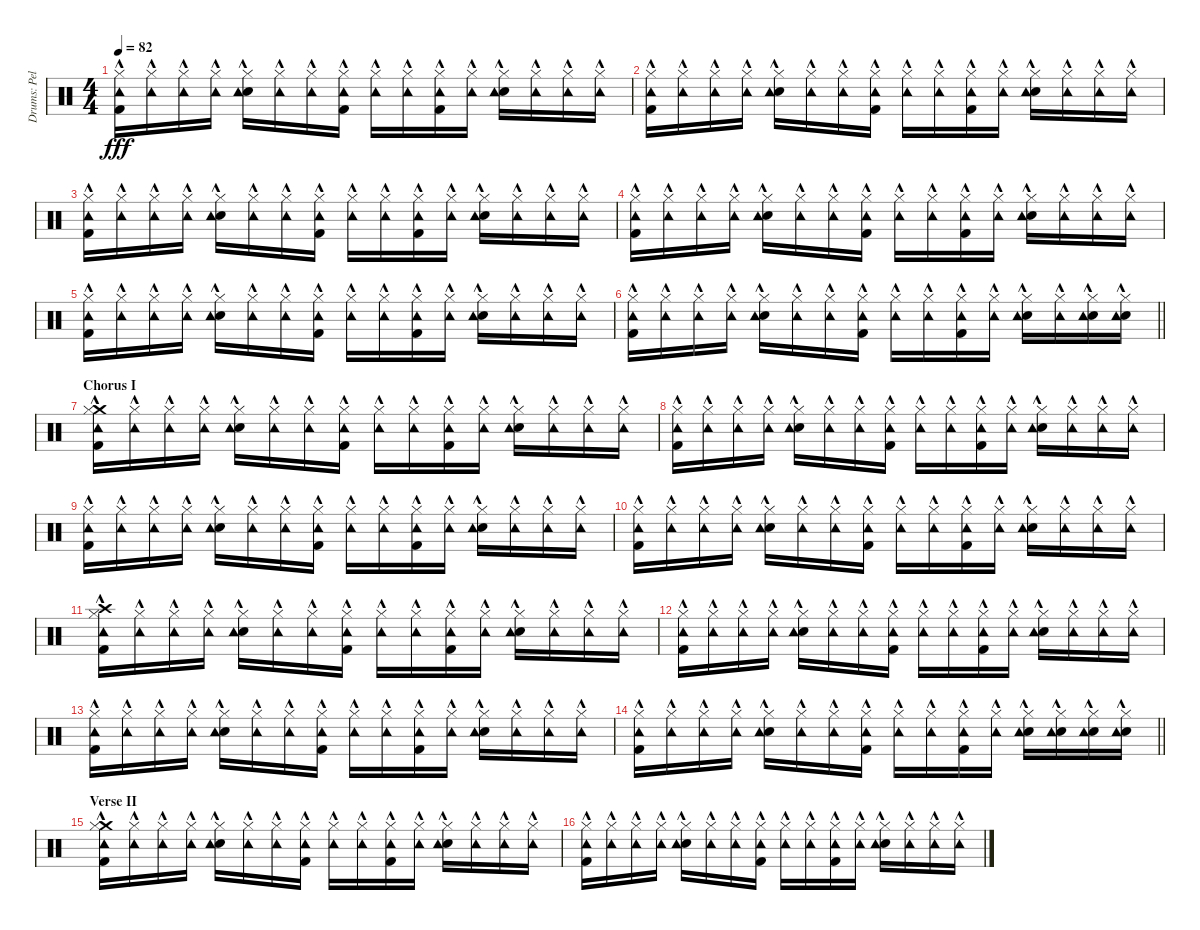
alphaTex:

\track ("Drums: Pelle" "Drums: Pel") {instrument percussion}
\staff {score}
\articulation defaults
\ts (4 4)
\tempo 82
\clef neutral
\ks c
("Hi-Hat (closed)"{hac} "Tambourine (hit)"{hac} "Kick (hit) 2"{hac}).16{dy fff} ("Hi-Hat (closed)"{hac} "Tambourine (hit)"{hac}).16 ("Hi-Hat (closed)"{hac} "Tambourine (hit)"{hac}).16 ("Hi-Hat (closed)"{hac} "Tambourine (hit)"{hac}).16 ("Hi-Hat (closed)"{hac} "Snare (hit) 2"{hac} "Tambourine (hit)"{hac}).16 ("Hi-Hat (closed)"{hac} "Tambourine (hit)"{hac}).16 ("Hi-Hat (closed)"{hac} "Tambourine (hit)"{hac}).16 ("Hi-Hat (closed)"{hac} "Tambourine (hit)"{hac} "Kick (hit) 2"{hac}).16 ("Hi-Hat (closed)"{hac} "Tambourine (hit)"{hac}).16 ("Hi-Hat (closed)"{hac} "Tambourine (hit)"{hac}).16 ("Hi-Hat (closed)"{hac} "Tambourine (hit)"{hac} "Kick (hit) 2"{hac}).16 ("Hi-Hat (closed)"{hac} "Tambourine (hit)"{hac}).16 ("Hi-Hat (closed)"{hac} "Snare (hit) 2"{hac} "Tambourine (hit)"{hac}).16 ("Hi-Hat (closed)"{hac} "Tambourine (hit)"{hac}).16 ("Hi-Hat (closed)"{hac} "Tambourine (hit)"{hac}).16 ("Hi-Hat (closed)"{hac} "Tambourine (hit)"{hac}).16 |
("Hi-Hat (closed)"{hac} "Tambourine (hit)"{hac} "Kick (hit) 2"{hac}).16 ("Hi-Hat (closed)"{hac} "Tambourine (hit)"{hac}).16 ("Hi-Hat (closed)"{hac} "Tambourine (hit)"{hac}).16 ("Hi-Hat (closed)"{hac} "Tambourine (hit)"{hac}).16 ("Hi-Hat (closed)"{hac} "Snare (hit) 2"{hac} "Tambourine (hit)"{hac}).16 ("Hi-Hat (closed)"{hac} "Tambourine (hit)"{hac}).16 ("Hi-Hat (closed)"{hac} "Tambourine (hit)"{hac}).16 ("Hi-Hat (closed)"{hac} "Tambourine (hit)"{hac} "Kick (hit) 2"{hac}).16 ("Hi-Hat (closed)"{hac} "Tambourine (hit)"{hac}).16 ("Hi-Hat (closed)"{hac} "Tambourine (hit)"{hac}).16 ("Hi-Hat (closed)"{hac} "Tambourine (hit)"{hac} "Kick (hit) 2"{hac}).16 ("Hi-Hat (closed)"{hac} "Tambourine (hit)"{hac}).16 ("Hi-Hat (closed)"{hac} "Snare (hit) 2"{hac} "Tambourine (hit)"{hac}).16 ("Hi-Hat (closed)"{hac} "Tambourine (hit)"{hac}).16 ("Hi-Hat (closed)"{hac} "Tambourine (hit)"{hac}).16 ("Hi-Hat (closed)"{hac} "Tambourine (hit)"{hac}).16 |
("Hi-Hat (closed)"{hac} "Tambourine (hit)"{hac} "Kick (hit) 2"{hac}).16 ("Hi-Hat (closed)"{hac} "Tambourine (hit)"{hac}).16 ("Hi-Hat (closed)"{hac} "Tambourine (hit)"{hac}).16 ("Hi-Hat (closed)"{hac} "Tambourine (hit)"{hac}).16 ("Hi-Hat (closed)"{hac} "Snare (hit) 2"{hac} "Tambourine (hit)"{hac}).16 ("Hi-Hat (closed)"{hac} "Tambourine (hit)"{hac}).16 ("Hi-Hat (closed)"{hac} "Tambourine (hit)"{hac}).16 ("Hi-Hat (closed)"{hac} "Tambourine (hit)"{hac} "Kick (hit) 2"{hac}).16 ("Hi-Hat (closed)"{hac} "Tambourine (hit)"{hac}).16 ("Hi-Hat (closed)"{hac} "Tambourine (hit)"{hac}).16 ("Hi-Hat (closed)"{hac} "Tambourine (hit)"{hac} "Kick (hit) 2"{hac}).16 ("Hi-Hat (closed)"{hac} "Tambourine (hit)"{hac}).16 ("Hi-Hat (closed)"{hac} "Snare (hit) 2"{hac} "Tambourine (hit)"{hac}).16 ("Hi-Hat (closed)"{hac} "Tambourine (hit)"{hac}).16 ("Hi-Hat (closed)"{hac} "Tambourine (hit)"{hac}).16 ("Hi-Hat (closed)"{hac} "Tambourine (hit)"{hac}).16 |
("Hi-Hat (closed)"{hac} "Tambourine (hit)"{hac} "Kick (hit) 2"{hac}).16 ("Hi-Hat (closed)"{hac} "Tambourine (hit)"{hac}).16 ("Hi-Hat (closed)"{hac} "Tambourine (hit)"{hac}).16 ("Hi-Hat (closed)"{hac} "Tambourine (hit)"{hac}).16 ("Hi-Hat (closed)"{hac} "Snare (hit) 2"{hac} "Tambourine (hit)"{hac}).16 ("Hi-Hat (closed)"{hac} "Tambourine (hit)"{hac}).16 ("Hi-Hat (closed)"{hac} "Tambourine (hit)"{hac}).16 ("Hi-Hat (closed)"{hac} "Tambourine (hit)"{hac} "Kick (hit) 2"{hac}).16 ("Hi-Hat (closed)"{hac} "Tambourine (hit)"{hac}).16 ("Hi-Hat (closed)"{hac} "Tambourine (hit)"{hac}).16 ("Hi-Hat (closed)"{hac} "Tambourine (hit)"{hac} "Kick (hit) 2"{hac}).16 ("Hi-Hat (closed)"{hac} "Tambourine (hit)"{hac}).16 ("Hi-Hat (closed)"{hac} "Snare (hit) 2"{hac} "Tambourine (hit)"{hac}).16 ("Hi-Hat (closed)"{hac} "Tambourine (hit)"{hac}).16 ("Hi-Hat (closed)"{hac} "Tambourine (hit)"{hac}).16 ("Hi-Hat (closed)"{hac} "Tambourine (hit)"{hac}).16 |
("Hi-Hat (closed)"{hac} "Tambourine (hit)"{hac} "Kick (hit) 2"{hac}).16 ("Hi-Hat (closed)"{hac} "Tambourine (hit)"{hac}).16 ("Hi-Hat (closed)"{hac} "Tambourine (hit)"{hac}).16 ("Hi-Hat (closed)"{hac} "Tambourine (hit)"{hac}).16 ("Hi-Hat (closed)"{hac} "Snare (hit) 2"{hac} "Tambourine (hit)"{hac}).16 ("Hi-Hat (closed)"{hac} "Tambourine (hit)"{hac}).16 ("Hi-Hat (closed)"{hac} "Tambourine (hit)"{hac}).16 ("Hi-Hat (closed)"{hac} "Tambourine (hit)"{hac} "Kick (hit) 2"{hac}).16 ("Hi-Hat (closed)"{hac} "Tambourine (hit)"{hac}).16 ("Hi-Hat (closed)"{hac} "Tambourine (hit)"{hac}).16 ("Hi-Hat (closed)"{hac} "Tambourine (hit)"{hac} "Kick (hit) 2"{hac}).16 ("Hi-Hat (closed)"{hac} "Tambourine (hit)"{hac}).16 ("Hi-Hat (closed)"{hac} "Snare (hit) 2"{hac} "Tambourine (hit)"{hac}).16 ("Hi-Hat (closed)"{hac} "Tambourine (hit)"{hac}).16 ("Hi-Hat (closed)"{hac} "Tambourine (hit)"{hac}).16 ("Hi-Hat (closed)"{hac} "Tambourine (hit)"{hac}).16 |
\barLineRight lightlight
("Hi-Hat (closed)"{hac} "Tambourine (hit)"{hac} "Kick (hit) 2"{hac}).16 ("Hi-Hat (closed)"{hac} "Tambourine (hit)"{hac}).16 ("Hi-Hat (closed)"{hac} "Tambourine (hit)"{hac}).16 ("Hi-Hat (closed)"{hac} "Tambourine (hit)"{hac}).16 ("Hi-Hat (closed)"{hac} "Snare (hit) 2"{hac} "Tambourine (hit)"{hac}).16 ("Hi-Hat (closed)"{hac} "Tambourine (hit)"{hac}).16 ("Hi-Hat (closed)"{hac} "Tambourine (hit)"{hac}).16 ("Hi-Hat (closed)"{hac} "Tambourine (hit)"{hac} "Kick (hit) 2"{hac}).16 ("Hi-Hat (closed)"{hac} "Tambourine (hit)"{hac}).16 ("Hi-Hat (closed)"{hac} "Tambourine (hit)"{hac}).16 ("Hi-Hat (closed)"{hac} "Tambourine (hit)"{hac} "Kick (hit) 2"{hac}).16 ("Hi-Hat (closed)"{hac} "Tambourine (hit)"{hac}).16 ("Hi-Hat (closed)"{hac} "Snare (hit) 2"{hac} "Tambourine (hit)"{hac}).16 ("Hi-Hat (closed)"{hac} "Tambourine (hit)"{hac}).16 ("Snare (hit) 2"{hac} "Hi-Hat (closed)"{hac} "Tambourine (hit)"{hac}).16 ("Snare (hit) 2"{hac} "Hi-Hat (closed)"{hac} "Tambourine (hit)"{hac}).16 |
\section ("" "Chorus I")
("Crash medium (hit)"{hac} "Hi-Hat (closed)"{hac} "Tambourine (hit)"{hac} "Kick (hit) 2"{hac}).16 ("Hi-Hat (closed)"{hac} "Tambourine (hit)"{hac}).16 ("Hi-Hat (closed)"{hac} "Tambourine (hit)"{hac}).16 ("Hi-Hat (closed)"{hac} "Tambourine (hit)"{hac}).16 ("Hi-Hat (closed)"{hac} "Snare (hit) 2"{hac} "Tambourine (hit)"{hac}).16 ("Hi-Hat (closed)"{hac} "Tambourine (hit)"{hac}).16 ("Hi-Hat (closed)"{hac} "Tambourine (hit)"{hac}).16 ("Hi-Hat (closed)"{hac} "Tambourine (hit)"{hac} "Kick (hit) 2"{hac}).16 ("Hi-Hat (closed)"{hac} "Tambourine (hit)"{hac}).16 ("Hi-Hat (closed)"{hac} "Tambourine (hit)"{hac}).16 ("Hi-Hat (closed)"{hac} "Tambourine (hit)"{hac} "Kick (hit) 2"{hac}).16 ("Hi-Hat (closed)"{hac} "Tambourine (hit)"{hac}).16 ("Hi-Hat (closed)"{hac} "Snare (hit) 2"{hac} "Tambourine (hit)"{hac}).16 ("Hi-Hat (closed)"{hac} "Tambourine (hit)"{hac}).16 ("Hi-Hat (closed)"{hac} "Tambourine (hit)"{hac}).16 ("Hi-Hat (closed)"{hac} "Tambourine (hit)"{hac}).16 |
("Hi-Hat (closed)"{hac} "Tambourine (hit)"{hac} "Kick (hit) 2"{hac}).16 ("Hi-Hat (closed)"{hac} "Tambourine (hit)"{hac}).16 ("Hi-Hat (closed)"{hac} "Tambourine (hit)"{hac}).16 ("Hi-Hat (closed)"{hac} "Tambourine (hit)"{hac}).16 ("Hi-Hat (closed)"{hac} "Snare (hit) 2"{hac} "Tambourine (hit)"{hac}).16 ("Hi-Hat (closed)"{hac} "Tambourine (hit)"{hac}).16 ("Hi-Hat (closed)"{hac} "Tambourine (hit)"{hac}).16 ("Hi-Hat (closed)"{hac} "Tambourine (hit)"{hac} "Kick (hit) 2"{hac}).16 ("Hi-Hat (closed)"{hac} "Tambourine (hit)"{hac}).16 ("Hi-Hat (closed)"{hac} "Tambourine (hit)"{hac}).16 ("Hi-Hat (closed)"{hac} "Tambourine (hit)"{hac} "Kick (hit) 2"{hac}).16 ("Hi-Hat (closed)"{hac} "Tambourine (hit)"{hac}).16 ("Hi-Hat (closed)"{hac} "Snare (hit) 2"{hac} "Tambourine (hit)"{hac}).16 ("Hi-Hat (closed)"{hac} "Tambourine (hit)"{hac}).16 ("Hi-Hat (closed)"{hac} "Tambourine (hit)"{hac}).16 ("Hi-Hat (closed)"{hac} "Tambourine (hit)"{hac}).16 |
("Hi-Hat (closed)"{hac} "Tambourine (hit)"{hac} "Kick (hit) 2"{hac}).16 ("Hi-Hat (closed)"{hac} "Tambourine (hit)"{hac}).16 ("Hi-Hat (closed)"{hac} "Tambourine (hit)"{hac}).16 ("Hi-Hat (closed)"{hac} "Tambourine (hit)"{hac}).16 ("Hi-Hat (closed)"{hac} "Snare (hit) 2"{hac} "Tambourine (hit)"{hac}).16 ("Hi-Hat (closed)"{hac} "Tambourine (hit)"{hac}).16 ("Hi-Hat (closed)"{hac} "Tambourine (hit)"{hac}).16 ("Hi-Hat (closed)"{hac} "Tambourine (hit)"{hac} "Kick (hit) 2"{hac}).16 ("Hi-Hat (closed)"{hac} "Tambourine (hit)"{hac}).16 ("Hi-Hat (closed)"{hac} "Tambourine (hit)"{hac}).16 ("Hi-Hat (closed)"{hac} "Tambourine (hit)"{hac} "Kick (hit) 2"{hac}).16 ("Hi-Hat (closed)"{hac} "Tambourine (hit)"{hac}).16 ("Hi-Hat (closed)"{hac} "Snare (hit) 2"{hac} "Tambourine (hit)"{hac}).16 ("Hi-Hat (closed)"{hac} "Tambourine (hit)"{hac}).16 ("Hi-Hat (closed)"{hac} "Tambourine (hit)"{hac}).16 ("Hi-Hat (closed)"{hac} "Tambourine (hit)"{hac}).16 |
("Hi-Hat (closed)"{hac} "Tambourine (hit)"{hac} "Kick (hit) 2"{hac}).16 ("Hi-Hat (closed)"{hac} "Tambourine (hit)"{hac}).16 ("Hi-Hat (closed)"{hac} "Tambourine (hit)"{hac}).16 ("Hi-Hat (closed)"{hac} "Tambourine (hit)"{hac}).16 ("Hi-Hat (closed)"{hac} "Snare (hit) 2"{hac} "Tambourine (hit)"{hac}).16 ("Hi-Hat (closed)"{hac} "Tambourine (hit)"{hac}).16 ("Hi-Hat (closed)"{hac} "Tambourine (hit)"{hac}).16 ("Hi-Hat (closed)"{hac} "Tambourine (hit)"{hac} "Kick (hit) 2"{hac}).16 ("Hi-Hat (closed)"{hac} "Tambourine (hit)"{hac}).16 ("Hi-Hat (closed)"{hac} "Tambourine (hit)"{hac}).16 ("Hi-Hat (closed)"{hac} "Tambourine (hit)"{hac} "Kick (hit) 2"{hac}).16 ("Hi-Hat (closed)"{hac} "Tambourine (hit)"{hac}).16 ("Hi-Hat (closed)"{hac} "Snare (hit) 2"{hac} "Tambourine (hit)"{hac}).16 ("Hi-Hat (closed)"{hac} "Tambourine (hit)"{hac}).16 ("Hi-Hat (closed)"{hac} "Tambourine (hit)"{hac}).16 ("Hi-Hat (closed)"{hac} "Tambourine (hit)"{hac}).16 |
("Crash high (hit)"{hac} "Hi-Hat (closed)"{hac} "Tambourine (hit)"{hac} "Kick (hit) 2"{hac}).16 ("Hi-Hat (closed)"{hac} "Tambourine (hit)"{hac}).16 ("Hi-Hat (closed)"{hac} "Tambourine (hit)"{hac}).16 ("Hi-Hat (closed)"{hac} "Tambourine (hit)"{hac}).16 ("Hi-Hat (closed)"{hac} "Snare (hit) 2"{hac} "Tambourine (hit)"{hac}).16 ("Hi-Hat (closed)"{hac} "Tambourine (hit)"{hac}).16 ("Hi-Hat (closed)"{hac} "Tambourine (hit)"{hac}).16 ("Hi-Hat (closed)"{hac} "Tambourine (hit)"{hac} "Kick (hit) 2"{hac}).16 ("Hi-Hat (closed)"{hac} "Tambourine (hit)"{hac}).16 ("Hi-Hat (closed)"{hac} "Tambourine (hit)"{hac}).16 ("Hi-Hat (closed)"{hac} "Tambourine (hit)"{hac} "Kick (hit) 2"{hac}).16 ("Hi-Hat (closed)"{hac} "Tambourine (hit)"{hac}).16 ("Hi-Hat (closed)"{hac} "Snare (hit) 2"{hac} "Tambourine (hit)"{hac}).16 ("Hi-Hat (closed)"{hac} "Tambourine (hit)"{hac}).16 ("Hi-Hat (closed)"{hac} "Tambourine (hit)"{hac}).16 ("Hi-Hat (closed)"{hac} "Tambourine (hit)"{hac}).16 |
("Hi-Hat (closed)"{hac} "Tambourine (hit)"{hac} "Kick (hit) 2"{hac}).16 ("Hi-Hat (closed)"{hac} "Tambourine (hit)"{hac}).16 ("Hi-Hat (closed)"{hac} "Tambourine (hit)"{hac}).16 ("Hi-Hat (closed)"{hac} "Tambourine (hit)"{hac}).16 ("Hi-Hat (closed)"{hac} "Snare (hit) 2"{hac} "Tambourine (hit)"{hac}).16 ("Hi-Hat (closed)"{hac} "Tambourine (hit)"{hac}).16 ("Hi-Hat (closed)"{hac} "Tambourine (hit)"{hac}).16 ("Hi-Hat (closed)"{hac} "Tambourine (hit)"{hac} "Kick (hit) 2"{hac}).16 ("Hi-Hat (closed)"{hac} "Tambourine (hit)"{hac}).16 ("Hi-Hat (closed)"{hac} "Tambourine (hit)"{hac}).16 ("Hi-Hat (closed)"{hac} "Tambourine (hit)"{hac} "Kick (hit) 2"{hac}).16 ("Hi-Hat (closed)"{hac} "Tambourine (hit)"{hac}).16 ("Hi-Hat (closed)"{hac} "Snare (hit) 2"{hac} "Tambourine (hit)"{hac}).16 ("Hi-Hat (closed)"{hac} "Tambourine (hit)"{hac}).16 ("Hi-Hat (closed)"{hac} "Tambourine (hit)"{hac}).16 ("Hi-Hat (closed)"{hac} "Tambourine (hit)"{hac}).16 |
("Hi-Hat (closed)"{hac} "Tambourine (hit)"{hac} "Kick (hit) 2"{hac}).16 ("Hi-Hat (closed)"{hac} "Tambourine (hit)"{hac}).16 ("Hi-Hat (closed)"{hac} "Tambourine (hit)"{hac}).16 ("Hi-Hat (closed)"{hac} "Tambourine (hit)"{hac}).16 ("Hi-Hat (closed)"{hac} "Snare (hit) 2"{hac} "Tambourine (hit)"{hac}).16 ("Hi-Hat (closed)"{hac} "Tambourine (hit)"{hac}).16 ("Hi-Hat (closed)"{hac} "Tambourine (hit)"{hac}).16 ("Hi-Hat (closed)"{hac} "Tambourine (hit)"{hac} "Kick (hit) 2"{hac}).16 ("Hi-Hat (closed)"{hac} "Tambourine (hit)"{hac}).16 ("Hi-Hat (closed)"{hac} "Tambourine (hit)"{hac}).16 ("Hi-Hat (closed)"{hac} "Tambourine (hit)"{hac} "Kick (hit) 2"{hac}).16 ("Hi-Hat (closed)"{hac} "Tambourine (hit)"{hac}).16 ("Hi-Hat (closed)"{hac} "Snare (hit) 2"{hac} "Tambourine (hit)"{hac}).16 ("Hi-Hat (closed)"{hac} "Tambourine (hit)"{hac}).16 ("Hi-Hat (closed)"{hac} "Tambourine (hit)"{hac}).16 ("Hi-Hat (closed)"{hac} "Tambourine (hit)"{hac}).16 |
\barLineRight lightlight
("Hi-Hat (closed)"{hac} "Tambourine (hit)"{hac} "Kick (hit) 2"{hac}).16 ("Hi-Hat (closed)"{hac} "Tambourine (hit)"{hac}).16 ("Hi-Hat (closed)"{hac} "Tambourine (hit)"{hac}).16 ("Hi-Hat (closed)"{hac} "Tambourine (hit)"{hac}).16 ("Hi-Hat (closed)"{hac} "Snare (hit) 2"{hac} "Tambourine (hit)"{hac}).16 ("Hi-Hat (closed)"{hac} "Tambourine (hit)"{hac}).16 ("Hi-Hat (closed)"{hac} "Tambourine (hit)"{hac}).16 ("Hi-Hat (closed)"{hac} "Tambourine (hit)"{hac} "Kick (hit) 2"{hac}).16 ("Hi-Hat (closed)"{hac} "Tambourine (hit)"{hac}).16 ("Hi-Hat (closed)"{hac} "Tambourine (hit)"{hac}).16 ("Hi-Hat (closed)"{hac} "Tambourine (hit)"{hac} "Kick (hit) 2"{hac}).16 ("Hi-Hat (closed)"{hac} "Tambourine (hit)"{hac}).16 ("Hi-Hat (closed)"{hac} "Snare (hit) 2"{hac} "Tambourine (hit)"{hac}).16 ("Hi-Hat (closed)"{hac} "Snare (hit) 2"{hac} "Tambourine (hit)"{hac}).16 ("Hi-Hat (closed)"{hac} "Snare (hit) 2"{hac} "Tambourine (hit)"{hac}).16 ("Hi-Hat (closed)"{hac} "Snare (hit) 2"{hac} "Tambourine (hit)"{hac}).16 |
\section ("" "Verse II")
("Crash medium (hit)"{hac} "Hi-Hat (closed)"{hac} "Tambourine (hit)"{hac} "Kick (hit) 2"{hac}).16 ("Hi-Hat (closed)"{hac} "Tambourine (hit)"{hac}).16 ("Hi-Hat (closed)"{hac} "Tambourine (hit)"{hac}).16 ("Hi-Hat (closed)"{hac} "Tambourine (hit)"{hac}).16 ("Hi-Hat (closed)"{hac} "Snare (hit) 2"{hac} "Tambourine (hit)"{hac}).16 ("Hi-Hat (closed)"{hac} "Tambourine (hit)"{hac}).16 ("Hi-Hat (closed)"{hac} "Tambourine (hit)"{hac}).16 ("Hi-Hat (closed)"{hac} "Tambourine (hit)"{hac} "Kick (hit) 2"{hac}).16 ("Hi-Hat (closed)"{hac} "Tambourine (hit)"{hac}).16 ("Hi-Hat (closed)"{hac} "Tambourine (hit)"{hac}).16 ("Hi-Hat (closed)"{hac} "Tambourine (hit)"{hac} "Kick (hit) 2"{hac}).16 ("Hi-Hat (closed)"{hac} "Tambourine (hit)"{hac}).16 ("Hi-Hat (closed)"{hac} "Snare (hit) 2"{hac} "Tambourine (hit)"{hac}).16 ("Hi-Hat (closed)"{hac} "Tambourine (hit)"{hac}).16 ("Hi-Hat (closed)"{hac} "Tambourine (hit)"{hac}).16 ("Hi-Hat (closed)"{hac} "Tambourine (hit)"{hac}).16 |
("Hi-Hat (closed)"{hac} "Tambourine (hit)"{hac} "Kick (hit) 2"{hac}).16 ("Hi-Hat (closed)"{hac} "Tambourine (hit)"{hac}).16 ("Hi-Hat (closed)"{hac} "Tambourine (hit)"{hac}).16 ("Hi-Hat (closed)"{hac} "Tambourine (hit)"{hac}).16 ("Hi-Hat (closed)"{hac} "Snare (hit) 2"{hac} "Tambourine (hit)"{hac}).16 ("Hi-Hat (closed)"{hac} "Tambourine (hit)"{hac}).16 ("Hi-Hat (closed)"{hac} "Tambourine (hit)"{hac}).16 ("Hi-Hat (closed)"{hac} "Tambourine (hit)"{hac} "Kick (hit) 2"{hac}).16 ("Hi-Hat (closed)"{hac} "Tambourine (hit)"{hac}).16 ("Hi-Hat (closed)"{hac} "Tambourine (hit)"{hac}).16 ("Hi-Hat (closed)"{hac} "Tambourine (hit)"{hac} "Kick (hit) 2"{hac}).16 ("Hi-Hat (closed)"{hac} "Tambourine (hit)"{hac}).16 ("Hi-Hat (closed)"{hac} "Snare (hit) 2"{hac} "Tambourine (hit)"{hac}).16 ("Hi-Hat (closed)"{hac} "Tambourine (hit)"{hac}).16 ("Hi-Hat (closed)"{hac} "Tambourine (hit)"{hac}).16 ("Hi-Hat (closed)"{hac} "Tambourine (hit)"{hac}).16
